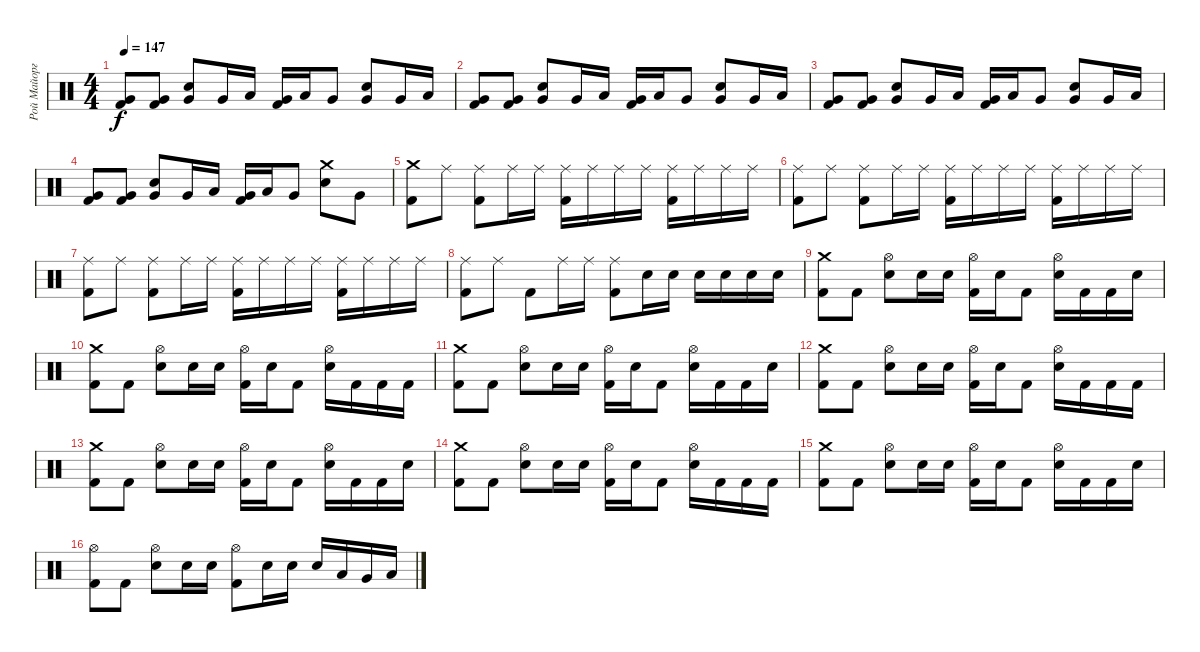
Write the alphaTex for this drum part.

\track ("Рой Майорга" "Рой Майорг") {instrument percussion}
\staff {score}
\articulation defaults
\ts (4 4)
\tempo 147
\clef neutral
\ks c
("Very Low Tom (hit)" "Kick (hit) 2").8{dy f} ("Very Low Tom (hit)" "Kick (hit) 2").8 ("Very Low Tom (hit)" "Electric Snare (hit)").8 "Very Low Tom (hit)".16 "Low Floor Tom (hit)".16 ("Very Low Tom (hit)" "Kick (hit) 2").16 "Low Floor Tom (hit)".16 "Very Low Tom (hit)".8 ("Very Low Tom (hit)" "Electric Snare (hit)").8 "Very Low Tom (hit)".16 "Low Floor Tom (hit)".16 |
("Very Low Tom (hit)" "Kick (hit) 2").8 ("Very Low Tom (hit)" "Kick (hit) 2").8 ("Very Low Tom (hit)" "Electric Snare (hit)").8 "Very Low Tom (hit)".16 "Low Floor Tom (hit)".16 ("Very Low Tom (hit)" "Kick (hit) 2").16 "Low Floor Tom (hit)".16 "Very Low Tom (hit)".8 ("Very Low Tom (hit)" "Electric Snare (hit)").8 "Very Low Tom (hit)".16 "Low Floor Tom (hit)".16 |
("Very Low Tom (hit)" "Kick (hit) 2").8 ("Very Low Tom (hit)" "Kick (hit) 2").8 ("Very Low Tom (hit)" "Electric Snare (hit)").8 "Very Low Tom (hit)".16 "Low Floor Tom (hit)".16 ("Very Low Tom (hit)" "Kick (hit) 2").16 "Low Floor Tom (hit)".16 "Very Low Tom (hit)".8 ("Very Low Tom (hit)" "Electric Snare (hit)").8 "Very Low Tom (hit)".16 "Low Floor Tom (hit)".16 |
("Very Low Tom (hit)" "Kick (hit) 2").8 ("Very Low Tom (hit)" "Kick (hit) 2").8 ("Very Low Tom (hit)" "Electric Snare (hit)").8 "Very Low Tom (hit)".16 "Low Floor Tom (hit)".16 ("Very Low Tom (hit)" "Kick (hit) 2").16 "Low Floor Tom (hit)".16 "Very Low Tom (hit)".8 ("Crash medium (hit)" "Electric Snare (hit)").8 "Very Low Tom (hit)".8 |
("Crash medium (hit)" "Kick (hit) 2").8 "Ride (middle)".8 ("Ride (middle)" "Kick (hit) 2").8 "Ride (middle)".16 "Ride (middle)".16 ("Ride (middle)" "Kick (hit) 2").16 "Ride (middle)".16 "Ride (middle)".16 "Ride (middle)".16 ("Ride (middle)" "Kick (hit) 2").16 "Ride (middle)".16 "Ride (middle)".16 "Ride (middle)".16 |
("Ride (middle)" "Kick (hit) 2").8 "Ride (middle)".8 ("Ride (middle)" "Kick (hit) 2").8 "Ride (middle)".16 "Ride (middle)".16 ("Ride (middle)" "Kick (hit) 2").16 "Ride (middle)".16 "Ride (middle)".16 "Ride (middle)".16 ("Ride (middle)" "Kick (hit) 2").16 "Ride (middle)".16 "Ride (middle)".16 "Ride (middle)".16 |
("Ride (middle)" "Kick (hit) 2").8 "Ride (middle)".8 ("Ride (middle)" "Kick (hit) 2").8 "Ride (middle)".16 "Ride (middle)".16 ("Ride (middle)" "Kick (hit) 2").16 "Ride (middle)".16 "Ride (middle)".16 "Ride (middle)".16 ("Ride (middle)" "Kick (hit) 2").16 "Ride (middle)".16 "Ride (middle)".16 "Ride (middle)".16 |
("Ride (middle)" "Kick (hit) 2").8 "Ride (middle)".8 "Kick (hit) 2".8 "Ride (middle)".16 "Ride (middle)".16 ("Ride (middle)" "Kick (hit) 2").8 "Electric Snare (hit)".16 "Electric Snare (hit)".16 "Electric Snare (hit)".16 "Electric Snare (hit)".16 "Electric Snare (hit)".16 "Electric Snare (hit)".16 |
("Crash medium (hit)" "Kick (hit) 2").8 "Kick (hit) 2".8 ("Hi-Hat (open)" "Electric Snare (hit)").8 "Electric Snare (hit)".16 "Electric Snare (hit)".16 ("Hi-Hat (open)" "Kick (hit) 2").16 "Electric Snare (hit)".16 "Kick (hit) 2".8 ("Hi-Hat (open)" "Electric Snare (hit)").16 "Kick (hit) 2".16 "Kick (hit) 2".16 "Electric Snare (hit)".16 |
("Crash medium (hit)" "Kick (hit) 2").8 "Kick (hit) 2".8 ("Hi-Hat (open)" "Electric Snare (hit)").8 "Electric Snare (hit)".16 "Electric Snare (hit)".16 ("Hi-Hat (open)" "Kick (hit) 2").16 "Electric Snare (hit)".16 "Kick (hit) 2".8 ("Hi-Hat (open)" "Electric Snare (hit)").16 "Kick (hit) 2".16 "Kick (hit) 2".16 "Kick (hit) 2".16 |
("Crash medium (hit)" "Kick (hit) 2").8 "Kick (hit) 2".8 ("Hi-Hat (open)" "Electric Snare (hit)").8 "Electric Snare (hit)".16 "Electric Snare (hit)".16 ("Hi-Hat (open)" "Kick (hit) 2").16 "Electric Snare (hit)".16 "Kick (hit) 2".8 ("Hi-Hat (open)" "Electric Snare (hit)").16 "Kick (hit) 2".16 "Kick (hit) 2".16 "Electric Snare (hit)".16 |
("Crash medium (hit)" "Kick (hit) 2").8 "Kick (hit) 2".8 ("Hi-Hat (open)" "Electric Snare (hit)").8 "Electric Snare (hit)".16 "Electric Snare (hit)".16 ("Hi-Hat (open)" "Kick (hit) 2").16 "Electric Snare (hit)".16 "Kick (hit) 2".8 ("Hi-Hat (open)" "Electric Snare (hit)").16 "Kick (hit) 2".16 "Kick (hit) 2".16 "Kick (hit) 2".16 |
("Crash medium (hit)" "Kick (hit) 2").8 "Kick (hit) 2".8 ("Hi-Hat (open)" "Electric Snare (hit)").8 "Electric Snare (hit)".16 "Electric Snare (hit)".16 ("Hi-Hat (open)" "Kick (hit) 2").16 "Electric Snare (hit)".16 "Kick (hit) 2".8 ("Hi-Hat (open)" "Electric Snare (hit)").16 "Kick (hit) 2".16 "Kick (hit) 2".16 "Electric Snare (hit)".16 |
("Crash medium (hit)" "Kick (hit) 2").8 "Kick (hit) 2".8 ("Hi-Hat (open)" "Electric Snare (hit)").8 "Electric Snare (hit)".16 "Electric Snare (hit)".16 ("Hi-Hat (open)" "Kick (hit) 2").16 "Electric Snare (hit)".16 "Kick (hit) 2".8 ("Hi-Hat (open)" "Electric Snare (hit)").16 "Kick (hit) 2".16 "Kick (hit) 2".16 "Kick (hit) 2".16 |
("Crash medium (hit)" "Kick (hit) 2").8 "Kick (hit) 2".8 ("Hi-Hat (open)" "Electric Snare (hit)").8 "Electric Snare (hit)".16 "Electric Snare (hit)".16 ("Hi-Hat (open)" "Kick (hit) 2").16 "Electric Snare (hit)".16 "Kick (hit) 2".8 ("Hi-Hat (open)" "Electric Snare (hit)").16 "Kick (hit) 2".16 "Kick (hit) 2".16 "Electric Snare (hit)".16 |
("Hi-Hat (open)" "Kick (hit) 2").8 "Kick (hit) 2".8 ("Hi-Hat (open)" "Electric Snare (hit)").8 "Electric Snare (hit)".16 "Electric Snare (hit)".16 ("Hi-Hat (open)" "Kick (hit) 2").8 "Electric Snare (hit)".16 "Electric Snare (hit)".16 "Electric Snare (hit)".16 "Low Tom (hit)".16 "Very Low Tom (hit)".16 "Low Floor Tom (hit)".16
